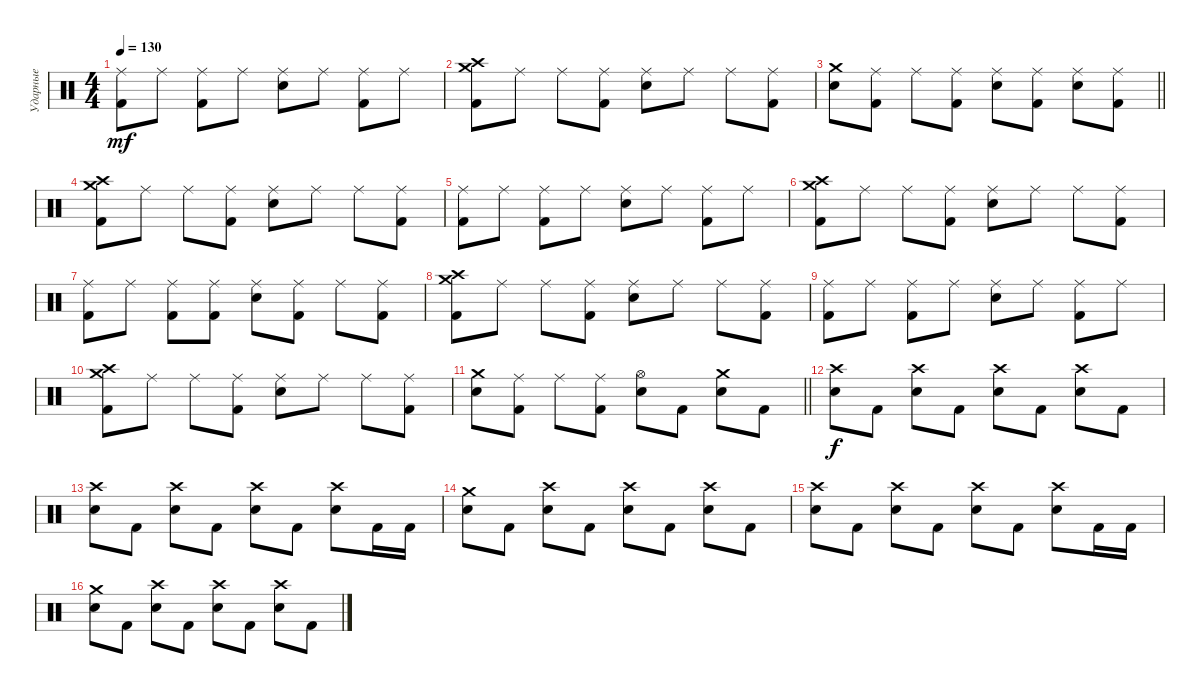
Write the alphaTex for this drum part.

\track ("Ударные" "Ударные") {instrument percussion}
\staff
\articulation defaults
\ts (4 4)
\tempo 130
\clef neutral
\ks c
("Ride (middle)" "Kick (hit) 2").8{dy mf} "Ride (middle)".8 ("Ride (middle)" "Kick (hit) 2").8 "Ride (middle)".8 ("Ride (middle)" "Electric Snare (hit)").8 "Ride (middle)".8 ("Ride (middle)" "Kick (hit) 2").8 "Ride (middle)".8 |
("Crash medium (hit)" "Crash high (hit)" "Kick (hit) 2").8 "Ride (middle)".8 "Ride (middle)".8 ("Ride (middle)" "Kick (hit) 2").8 ("Ride (middle)" "Electric Snare (hit)").8 "Ride (middle)".8 "Ride (middle)".8 ("Ride (middle)" "Kick (hit) 2").8 |
\barLineRight lightlight
("Crash medium (hit)" "Electric Snare (hit)").8 ("Ride (middle)" "Kick (hit) 2").8 "Ride (middle)".8 ("Ride (middle)" "Kick (hit) 2").8 ("Ride (middle)" "Electric Snare (hit)").8 ("Ride (middle)" "Kick (hit) 2").8 ("Ride (middle)" "Electric Snare (hit)").8 ("Ride (middle)" "Kick (hit) 2").8 |
("Crash medium (hit)" "Crash high (hit)" "Kick (hit) 2").8 "Ride (middle)".8 "Ride (middle)".8 ("Ride (middle)" "Kick (hit) 2").8 ("Ride (middle)" "Electric Snare (hit)").8 "Ride (middle)".8 "Ride (middle)".8 ("Ride (middle)" "Kick (hit) 2").8 |
("Ride (middle)" "Kick (hit) 2").8 "Ride (middle)".8 ("Ride (middle)" "Kick (hit) 2").8 "Ride (middle)".8 ("Ride (middle)" "Electric Snare (hit)").8 "Ride (middle)".8 ("Ride (middle)" "Kick (hit) 2").8 "Ride (middle)".8 |
("Crash medium (hit)" "Crash high (hit)" "Kick (hit) 2").8 "Ride (middle)".8 "Ride (middle)".8 ("Ride (middle)" "Kick (hit) 2").8 ("Ride (middle)" "Electric Snare (hit)").8 "Ride (middle)".8 "Ride (middle)".8 ("Ride (middle)" "Kick (hit) 2").8 |
("Ride (middle)" "Kick (hit) 2").8 "Ride (middle)".8 ("Ride (middle)" "Kick (hit) 2").8 ("Ride (middle)" "Kick (hit) 2").8 ("Ride (middle)" "Electric Snare (hit)").8 ("Ride (middle)" "Kick (hit) 2").8 "Ride (middle)".8 ("Ride (middle)" "Kick (hit) 2").8 |
("Crash medium (hit)" "Crash high (hit)" "Kick (hit) 2").8 "Ride (middle)".8 "Ride (middle)".8 ("Ride (middle)" "Kick (hit) 2").8 ("Ride (middle)" "Electric Snare (hit)").8 "Ride (middle)".8 "Ride (middle)".8 ("Ride (middle)" "Kick (hit) 2").8 |
("Ride (middle)" "Kick (hit) 2").8 "Ride (middle)".8 ("Ride (middle)" "Kick (hit) 2").8 "Ride (middle)".8 ("Ride (middle)" "Electric Snare (hit)").8 "Ride (middle)".8 ("Ride (middle)" "Kick (hit) 2").8 "Ride (middle)".8 |
("Crash medium (hit)" "Crash high (hit)" "Kick (hit) 2").8 "Ride (middle)".8 "Ride (middle)".8 ("Ride (middle)" "Kick (hit) 2").8 ("Ride (middle)" "Electric Snare (hit)").8 "Ride (middle)".8 "Ride (middle)".8 ("Ride (middle)" "Kick (hit) 2").8 |
\barLineRight lightlight
("Crash medium (hit)" "Electric Snare (hit)").8 ("Ride (middle)" "Kick (hit) 2").8 "Ride (middle)".8 ("Ride (middle)" "Kick (hit) 2").8 ("Hi-Hat (open)" "Electric Snare (hit)").8 "Kick (hit) 2".8 ("Crash medium (hit)" "Electric Snare (hit)").8 "Kick (hit) 2".8 |
("Crash high (hit)" "Electric Snare (hit)").8{dy f} "Kick (hit) 2".8 ("Crash high (hit)" "Electric Snare (hit)").8 "Kick (hit) 2".8 ("Crash high (hit)" "Electric Snare (hit)").8 "Kick (hit) 2".8 ("Crash high (hit)" "Electric Snare (hit)").8 "Kick (hit) 2".8 |
("Crash high (hit)" "Electric Snare (hit)").8 "Kick (hit) 2".8 ("Crash high (hit)" "Electric Snare (hit)").8 "Kick (hit) 2".8 ("Crash high (hit)" "Electric Snare (hit)").8 "Kick (hit) 2".8 ("Crash high (hit)" "Electric Snare (hit)").8 "Kick (hit) 2".16 "Kick (hit) 2".16 |
("Crash medium (hit)" "Electric Snare (hit)").8 "Kick (hit) 2".8 ("Crash high (hit)" "Electric Snare (hit)").8 "Kick (hit) 2".8 ("Crash high (hit)" "Electric Snare (hit)").8 "Kick (hit) 2".8 ("Crash high (hit)" "Electric Snare (hit)").8 "Kick (hit) 2".8 |
("Crash high (hit)" "Electric Snare (hit)").8 "Kick (hit) 2".8 ("Crash high (hit)" "Electric Snare (hit)").8 "Kick (hit) 2".8 ("Crash high (hit)" "Electric Snare (hit)").8 "Kick (hit) 2".8 ("Crash high (hit)" "Electric Snare (hit)").8 "Kick (hit) 2".16 "Kick (hit) 2".16 |
("Crash medium (hit)" "Electric Snare (hit)").8 "Kick (hit) 2".8 ("Crash high (hit)" "Electric Snare (hit)").8 "Kick (hit) 2".8 ("Crash high (hit)" "Electric Snare (hit)").8 "Kick (hit) 2".8 ("Crash high (hit)" "Electric Snare (hit)").8 "Kick (hit) 2".8
